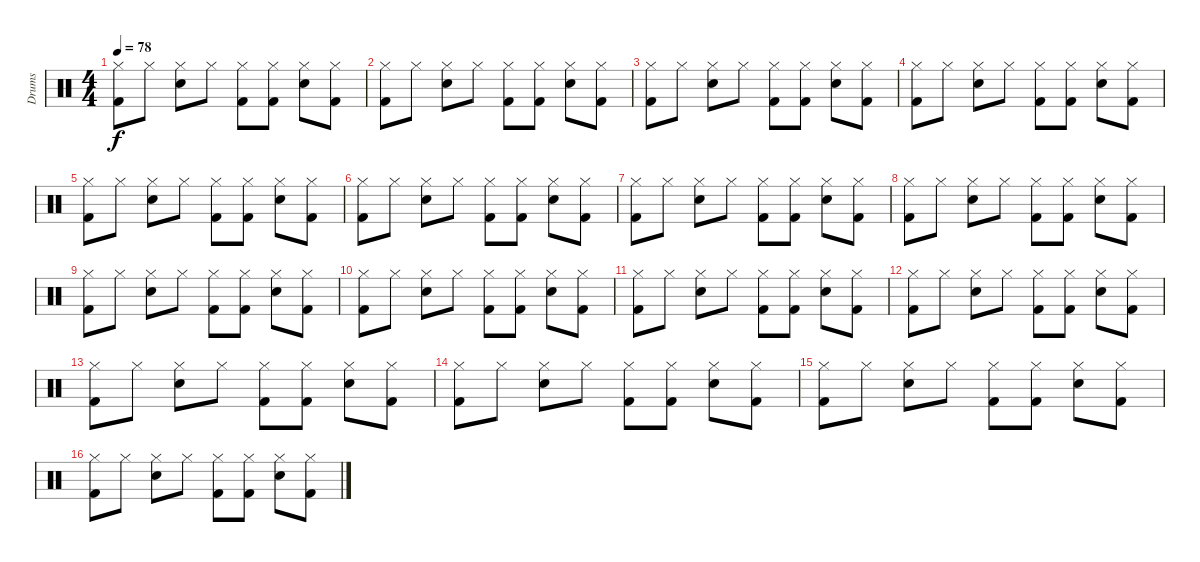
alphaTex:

\track ("Drums" "Drums") {instrument percussion}
\staff {score}
\articulation defaults
\ts (4 4)
\tempo 78
\clef neutral
\ks c
("Hi-Hat (closed)" "Kick (hit) 2").8{dy f} "Hi-Hat (closed)".8 ("Hi-Hat (closed)" "Electric Snare (hit)").8 "Hi-Hat (closed)".8 ("Hi-Hat (closed)" "Kick (hit) 2").8 ("Hi-Hat (closed)" "Kick (hit) 2").8 ("Hi-Hat (closed)" "Electric Snare (hit)").8 ("Hi-Hat (closed)" "Kick (hit) 2").8 |
("Hi-Hat (closed)" "Kick (hit) 2").8 "Hi-Hat (closed)".8 ("Hi-Hat (closed)" "Electric Snare (hit)").8 "Hi-Hat (closed)".8 ("Hi-Hat (closed)" "Kick (hit) 2").8 ("Hi-Hat (closed)" "Kick (hit) 2").8 ("Hi-Hat (closed)" "Electric Snare (hit)").8 ("Hi-Hat (closed)" "Kick (hit) 2").8 |
("Hi-Hat (closed)" "Kick (hit) 2").8 "Hi-Hat (closed)".8 ("Hi-Hat (closed)" "Electric Snare (hit)").8 "Hi-Hat (closed)".8 ("Hi-Hat (closed)" "Kick (hit) 2").8 ("Hi-Hat (closed)" "Kick (hit) 2").8 ("Hi-Hat (closed)" "Electric Snare (hit)").8 ("Hi-Hat (closed)" "Kick (hit) 2").8 |
("Hi-Hat (closed)" "Kick (hit) 2").8 "Hi-Hat (closed)".8 ("Hi-Hat (closed)" "Electric Snare (hit)").8 "Hi-Hat (closed)".8 ("Hi-Hat (closed)" "Kick (hit) 2").8 ("Hi-Hat (closed)" "Kick (hit) 2").8 ("Hi-Hat (closed)" "Electric Snare (hit)").8 ("Hi-Hat (closed)" "Kick (hit) 2").8 |
("Hi-Hat (closed)" "Kick (hit) 2").8 "Hi-Hat (closed)".8 ("Hi-Hat (closed)" "Electric Snare (hit)").8 "Hi-Hat (closed)".8 ("Hi-Hat (closed)" "Kick (hit) 2").8 ("Hi-Hat (closed)" "Kick (hit) 2").8 ("Hi-Hat (closed)" "Electric Snare (hit)").8 ("Hi-Hat (closed)" "Kick (hit) 2").8 |
("Hi-Hat (closed)" "Kick (hit) 2").8 "Hi-Hat (closed)".8 ("Hi-Hat (closed)" "Electric Snare (hit)").8 "Hi-Hat (closed)".8 ("Hi-Hat (closed)" "Kick (hit) 2").8 ("Hi-Hat (closed)" "Kick (hit) 2").8 ("Hi-Hat (closed)" "Electric Snare (hit)").8 ("Hi-Hat (closed)" "Kick (hit) 2").8 |
("Hi-Hat (closed)" "Kick (hit) 2").8 "Hi-Hat (closed)".8 ("Hi-Hat (closed)" "Electric Snare (hit)").8 "Hi-Hat (closed)".8 ("Hi-Hat (closed)" "Kick (hit) 2").8 ("Hi-Hat (closed)" "Kick (hit) 2").8 ("Hi-Hat (closed)" "Electric Snare (hit)").8 ("Hi-Hat (closed)" "Kick (hit) 2").8 |
("Hi-Hat (closed)" "Kick (hit) 2").8 "Hi-Hat (closed)".8 ("Hi-Hat (closed)" "Electric Snare (hit)").8 "Hi-Hat (closed)".8 ("Hi-Hat (closed)" "Kick (hit) 2").8 ("Hi-Hat (closed)" "Kick (hit) 2").8 ("Hi-Hat (closed)" "Electric Snare (hit)").8 ("Hi-Hat (closed)" "Kick (hit) 2").8 |
("Hi-Hat (closed)" "Kick (hit) 2").8 "Hi-Hat (closed)".8 ("Hi-Hat (closed)" "Electric Snare (hit)").8 "Hi-Hat (closed)".8 ("Hi-Hat (closed)" "Kick (hit) 2").8 ("Hi-Hat (closed)" "Kick (hit) 2").8 ("Hi-Hat (closed)" "Electric Snare (hit)").8 ("Hi-Hat (closed)" "Kick (hit) 2").8 |
("Hi-Hat (closed)" "Kick (hit) 2").8 "Hi-Hat (closed)".8 ("Hi-Hat (closed)" "Electric Snare (hit)").8 "Hi-Hat (closed)".8 ("Hi-Hat (closed)" "Kick (hit) 2").8 ("Hi-Hat (closed)" "Kick (hit) 2").8 ("Hi-Hat (closed)" "Electric Snare (hit)").8 ("Hi-Hat (closed)" "Kick (hit) 2").8 |
("Hi-Hat (closed)" "Kick (hit) 2").8 "Hi-Hat (closed)".8 ("Hi-Hat (closed)" "Electric Snare (hit)").8 "Hi-Hat (closed)".8 ("Hi-Hat (closed)" "Kick (hit) 2").8 ("Hi-Hat (closed)" "Kick (hit) 2").8 ("Hi-Hat (closed)" "Electric Snare (hit)").8 ("Hi-Hat (closed)" "Kick (hit) 2").8 |
("Hi-Hat (closed)" "Kick (hit) 2").8 "Hi-Hat (closed)".8 ("Hi-Hat (closed)" "Electric Snare (hit)").8 "Hi-Hat (closed)".8 ("Hi-Hat (closed)" "Kick (hit) 2").8 ("Hi-Hat (closed)" "Kick (hit) 2").8 ("Hi-Hat (closed)" "Electric Snare (hit)").8 ("Hi-Hat (closed)" "Kick (hit) 2").8 |
("Hi-Hat (closed)" "Kick (hit) 2").8 "Hi-Hat (closed)".8 ("Hi-Hat (closed)" "Electric Snare (hit)").8 "Hi-Hat (closed)".8 ("Hi-Hat (closed)" "Kick (hit) 2").8 ("Hi-Hat (closed)" "Kick (hit) 2").8 ("Hi-Hat (closed)" "Electric Snare (hit)").8 ("Hi-Hat (closed)" "Kick (hit) 2").8 |
("Hi-Hat (closed)" "Kick (hit) 2").8 "Hi-Hat (closed)".8 ("Hi-Hat (closed)" "Electric Snare (hit)").8 "Hi-Hat (closed)".8 ("Hi-Hat (closed)" "Kick (hit) 2").8 ("Hi-Hat (closed)" "Kick (hit) 2").8 ("Hi-Hat (closed)" "Electric Snare (hit)").8 ("Hi-Hat (closed)" "Kick (hit) 2").8 |
("Hi-Hat (closed)" "Kick (hit) 2").8 "Hi-Hat (closed)".8 ("Hi-Hat (closed)" "Electric Snare (hit)").8 "Hi-Hat (closed)".8 ("Hi-Hat (closed)" "Kick (hit) 2").8 ("Hi-Hat (closed)" "Kick (hit) 2").8 ("Hi-Hat (closed)" "Electric Snare (hit)").8 ("Hi-Hat (closed)" "Kick (hit) 2").8 |
("Hi-Hat (closed)" "Kick (hit) 2").8{volume 7} "Hi-Hat (closed)".8 ("Hi-Hat (closed)" "Electric Snare (hit)").8 "Hi-Hat (closed)".8 ("Hi-Hat (closed)" "Kick (hit) 2").8 ("Hi-Hat (closed)" "Kick (hit) 2").8 ("Hi-Hat (closed)" "Electric Snare (hit)").8 ("Hi-Hat (closed)" "Kick (hit) 2").8
